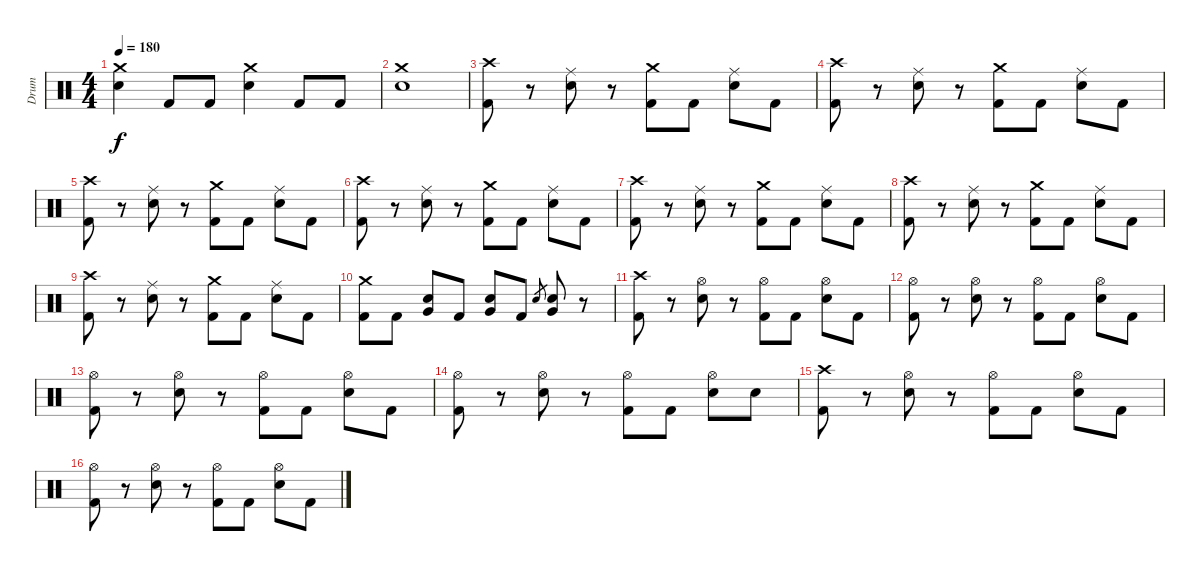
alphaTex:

\track ("Drum" "Drum") {instrument percussion}
\staff {score}
\articulation defaults
\ts (4 4)
\tempo 180
\clef neutral
\ks c
("Crash medium (hit)" "Electric Snare (hit)").4{dy f} "Kick (hit) 2".8 "Kick (hit) 2".8 ("Crash medium (hit)" "Electric Snare (hit)").4 "Kick (hit) 2".8 "Kick (hit) 2".8 |
("Crash medium (hit)" "Electric Snare (hit)").1 |
("Crash high (hit)" "Kick (hit) 2").8 r.8 ("Ride (middle)" "Electric Snare (hit)").8 r.8 ("Crash medium (hit)" "Kick (hit) 2").8 "Kick (hit) 2".8 ("Ride (middle)" "Electric Snare (hit)").8 "Kick (hit) 2".8 |
("Crash high (hit)" "Kick (hit) 2").8 r.8 ("Ride (middle)" "Electric Snare (hit)").8 r.8 ("Crash medium (hit)" "Kick (hit) 2").8 "Kick (hit) 2".8 ("Ride (middle)" "Electric Snare (hit)").8 "Kick (hit) 2".8 |
("Crash high (hit)" "Kick (hit) 2").8 r.8 ("Ride (middle)" "Electric Snare (hit)").8 r.8 ("Crash medium (hit)" "Kick (hit) 2").8 "Kick (hit) 2".8 ("Ride (middle)" "Electric Snare (hit)").8 "Kick (hit) 2".8 |
("Crash high (hit)" "Kick (hit) 2").8 r.8 ("Ride (middle)" "Electric Snare (hit)").8 r.8 ("Crash medium (hit)" "Kick (hit) 2").8 "Kick (hit) 2".8 ("Ride (middle)" "Electric Snare (hit)").8 "Kick (hit) 2".8 |
("Crash high (hit)" "Kick (hit) 2").8 r.8 ("Ride (middle)" "Electric Snare (hit)").8 r.8 ("Crash medium (hit)" "Kick (hit) 2").8 "Kick (hit) 2".8 ("Ride (middle)" "Electric Snare (hit)").8 "Kick (hit) 2".8 |
("Crash high (hit)" "Kick (hit) 2").8 r.8 ("Ride (middle)" "Electric Snare (hit)").8 r.8 ("Crash medium (hit)" "Kick (hit) 2").8 "Kick (hit) 2".8 ("Ride (middle)" "Electric Snare (hit)").8 "Kick (hit) 2".8 |
("Crash high (hit)" "Kick (hit) 2").8 r.8 ("Ride (middle)" "Electric Snare (hit)").8 r.8 ("Crash medium (hit)" "Kick (hit) 2").8 "Kick (hit) 2".8 ("Ride (middle)" "Electric Snare (hit)").8 "Kick (hit) 2".8 |
("Crash medium (hit)" "Kick (hit) 2").8 "Kick (hit) 2".8 ("Very Low Tom (hit)" "Electric Snare (hit)").8 "Kick (hit) 2".8 ("Very Low Tom (hit)" "Electric Snare (hit)").8 "Kick (hit) 2".8 "Electric Snare (hit)".8{gr} ("Very Low Tom (hit)" "Electric Snare (hit)").8 r.8 |
("Crash high (hit)" "Kick (hit) 2").8 r.8 ("Hi-Hat (open)" "Electric Snare (hit)").8 r.8 ("Hi-Hat (open)" "Kick (hit) 2").8 "Kick (hit) 2".8 ("Hi-Hat (open)" "Electric Snare (hit)").8 "Kick (hit) 2".8 |
("Hi-Hat (open)" "Kick (hit) 2").8 r.8 ("Hi-Hat (open)" "Electric Snare (hit)").8 r.8 ("Hi-Hat (open)" "Kick (hit) 2").8 "Kick (hit) 2".8 ("Hi-Hat (open)" "Electric Snare (hit)").8 "Kick (hit) 2".8 |
("Hi-Hat (open)" "Kick (hit) 2").8 r.8 ("Hi-Hat (open)" "Electric Snare (hit)").8 r.8 ("Hi-Hat (open)" "Kick (hit) 2").8 "Kick (hit) 2".8 ("Hi-Hat (open)" "Electric Snare (hit)").8 "Kick (hit) 2".8 |
("Hi-Hat (open)" "Kick (hit) 2").8 r.8 ("Hi-Hat (open)" "Electric Snare (hit)").8 r.8 ("Hi-Hat (open)" "Kick (hit) 2").8 "Kick (hit) 2".8 ("Hi-Hat (open)" "Electric Snare (hit)").8 "Electric Snare (hit)".8 |
("Crash high (hit)" "Kick (hit) 2").8 r.8 ("Hi-Hat (open)" "Electric Snare (hit)").8 r.8 ("Hi-Hat (open)" "Kick (hit) 2").8 "Kick (hit) 2".8 ("Hi-Hat (open)" "Electric Snare (hit)").8 "Kick (hit) 2".8 |
("Hi-Hat (open)" "Kick (hit) 2").8 r.8 ("Hi-Hat (open)" "Electric Snare (hit)").8 r.8 ("Hi-Hat (open)" "Kick (hit) 2").8 "Kick (hit) 2".8 ("Hi-Hat (open)" "Electric Snare (hit)").8 "Kick (hit) 2".8
